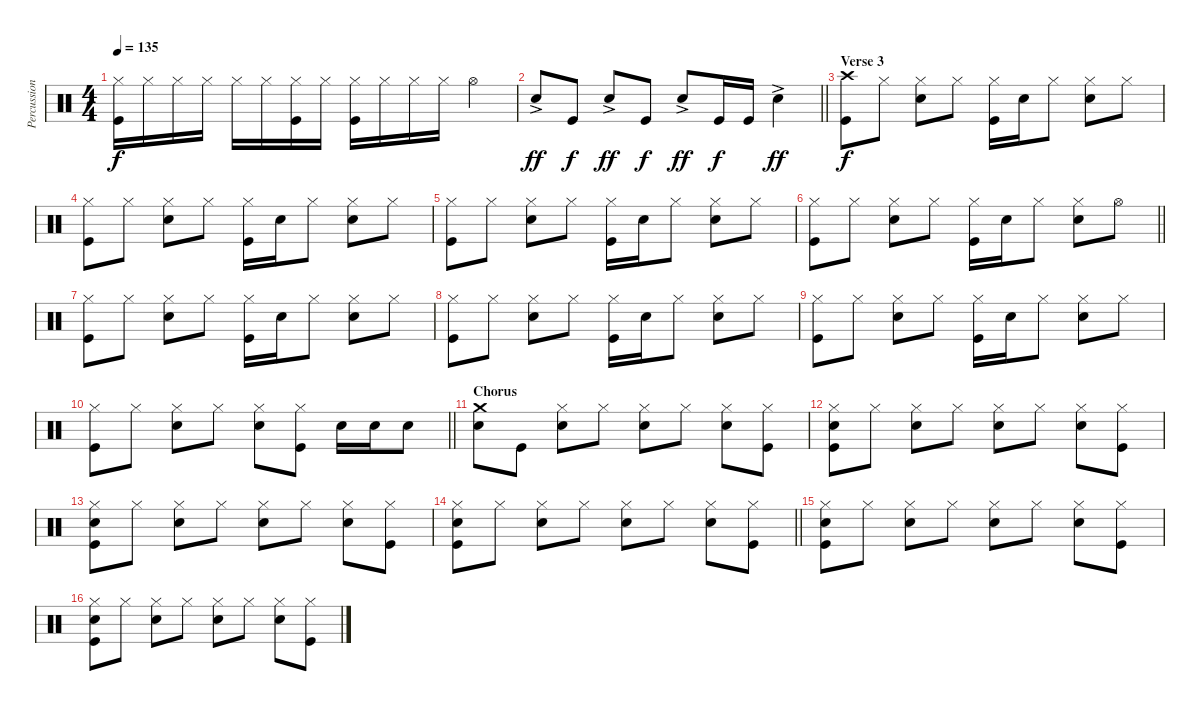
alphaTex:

\track ("Percussion" "Percussion") {instrument percussion}
\staff {score}
\articulation defaults
\ts (4 4)
\tempo 135
\clef neutral
\ks c
("Kick (hit)" "Hi-Hat (closed)").16{dy f} "Hi-Hat (closed)".16 "Hi-Hat (closed)".16 "Hi-Hat (closed)".16 "Hi-Hat (closed)".16 "Hi-Hat (closed)".16 ("Kick (hit)" "Hi-Hat (closed)").16 "Hi-Hat (closed)".16 ("Kick (hit)" "Hi-Hat (closed)").16 "Hi-Hat (closed)".16 "Hi-Hat (closed)".16 "Hi-Hat (closed)".16 "Hi-Hat (open)".4 |
\barLineRight lightlight "Snare (hit) 2"{ac}.8{dy ff} "Kick (hit)".8{dy f} "Snare (hit) 2"{ac}.8{dy ff} "Kick (hit)".8{dy f} "Snare (hit) 2"{ac}.8{dy ff} "Kick (hit)".16{dy f} "Kick (hit)".16 "Snare (hit) 2"{ac}.4{dy ff}
|
\section ("" "Verse 3")
("Kick (hit)" "Crash high (hit)").8{dy f} "Hi-Hat (closed)".8 ("Hi-Hat (closed)" "Snare (hit) 2").8 "Hi-Hat (closed)".8 ("Kick (hit)" "Hi-Hat (closed)").16 "Snare (hit) 2".16 "Hi-Hat (closed)".8 ("Hi-Hat (closed)" "Snare (hit) 2").8 "Hi-Hat (closed)".8 |
("Kick (hit)" "Hi-Hat (closed)").8 "Hi-Hat (closed)".8 ("Hi-Hat (closed)" "Snare (hit) 2").8 "Hi-Hat (closed)".8 ("Kick (hit)" "Hi-Hat (closed)").16 "Snare (hit) 2".16 "Hi-Hat (closed)".8 ("Hi-Hat (closed)" "Snare (hit) 2").8 "Hi-Hat (closed)".8 |
("Kick (hit)" "Hi-Hat (closed)").8 "Hi-Hat (closed)".8 ("Hi-Hat (closed)" "Snare (hit) 2").8 "Hi-Hat (closed)".8 ("Kick (hit)" "Hi-Hat (closed)").16 "Snare (hit) 2".16 "Hi-Hat (closed)".8 ("Hi-Hat (closed)" "Snare (hit) 2").8 "Hi-Hat (closed)".8 |
\barLineRight lightlight
("Kick (hit)" "Hi-Hat (closed)").8 "Hi-Hat (closed)".8 ("Hi-Hat (closed)" "Snare (hit) 2").8 "Hi-Hat (closed)".8 ("Kick (hit)" "Hi-Hat (closed)").16 "Snare (hit) 2".16 "Hi-Hat (closed)".8 ("Hi-Hat (closed)" "Snare (hit) 2").8 "Hi-Hat (open)".8 |
("Kick (hit)" "Hi-Hat (closed)").8 "Hi-Hat (closed)".8 ("Hi-Hat (closed)" "Snare (hit) 2").8 "Hi-Hat (closed)".8 ("Kick (hit)" "Hi-Hat (closed)").16 "Snare (hit) 2".16 "Hi-Hat (closed)".8 ("Hi-Hat (closed)" "Snare (hit) 2").8 "Hi-Hat (closed)".8 |
("Kick (hit)" "Hi-Hat (closed)").8 "Hi-Hat (closed)".8 ("Hi-Hat (closed)" "Snare (hit) 2").8 "Hi-Hat (closed)".8 ("Kick (hit)" "Hi-Hat (closed)").16 "Snare (hit) 2".16 "Hi-Hat (closed)".8 ("Hi-Hat (closed)" "Snare (hit) 2").8 "Hi-Hat (closed)".8 |
("Kick (hit)" "Hi-Hat (closed)").8 "Hi-Hat (closed)".8 ("Hi-Hat (closed)" "Snare (hit) 2").8 "Hi-Hat (closed)".8 ("Kick (hit)" "Hi-Hat (closed)").16 "Snare (hit) 2".16 "Hi-Hat (closed)".8 ("Hi-Hat (closed)" "Snare (hit) 2").8 "Hi-Hat (closed)".8 |
\barLineRight lightlight
("Kick (hit)" "Hi-Hat (closed)").8 "Hi-Hat (closed)".8 ("Hi-Hat (closed)" "Snare (hit) 2").8 "Hi-Hat (closed)".8 ("Hi-Hat (closed)" "Snare (hit) 2").8 ("Kick (hit)" "Hi-Hat (closed)").8 "Snare (hit) 2".16 "Snare (hit) 2".16 "Snare (hit) 2".8 |
\section ("" "Chorus")
("Crash medium (hit)" "Snare (hit) 2").8 "Kick (hit)".8 ("Hi-Hat (closed)" "Snare (hit) 2").8 "Hi-Hat (closed)".8 ("Hi-Hat (closed)" "Snare (hit) 2").8 "Hi-Hat (closed)".8 ("Hi-Hat (closed)" "Snare (hit) 2").8 ("Kick (hit)" "Hi-Hat (closed)").8 |
("Kick (hit)" "Hi-Hat (closed)" "Snare (hit) 2").8 "Hi-Hat (closed)".8 ("Hi-Hat (closed)" "Snare (hit) 2").8 "Hi-Hat (closed)".8 ("Hi-Hat (closed)" "Snare (hit) 2").8 "Hi-Hat (closed)".8 ("Hi-Hat (closed)" "Snare (hit) 2").8 ("Kick (hit)" "Hi-Hat (closed)").8 |
("Kick (hit)" "Hi-Hat (closed)" "Snare (hit) 2").8 "Hi-Hat (closed)".8 ("Hi-Hat (closed)" "Snare (hit) 2").8 "Hi-Hat (closed)".8 ("Hi-Hat (closed)" "Snare (hit) 2").8 "Hi-Hat (closed)".8 ("Hi-Hat (closed)" "Snare (hit) 2").8 ("Kick (hit)" "Hi-Hat (closed)").8 |
\barLineRight lightlight
("Kick (hit)" "Hi-Hat (closed)" "Snare (hit) 2").8 "Hi-Hat (closed)".8 ("Hi-Hat (closed)" "Snare (hit) 2").8 "Hi-Hat (closed)".8 ("Hi-Hat (closed)" "Snare (hit) 2").8 "Hi-Hat (closed)".8 ("Hi-Hat (closed)" "Snare (hit) 2").8 ("Kick (hit)" "Hi-Hat (closed)").8 |
("Kick (hit)" "Hi-Hat (closed)" "Snare (hit) 2").8 "Hi-Hat (closed)".8 ("Hi-Hat (closed)" "Snare (hit) 2").8 "Hi-Hat (closed)".8 ("Hi-Hat (closed)" "Snare (hit) 2").8 "Hi-Hat (closed)".8 ("Hi-Hat (closed)" "Snare (hit) 2").8 ("Kick (hit)" "Hi-Hat (closed)").8 |
("Kick (hit)" "Hi-Hat (closed)" "Snare (hit) 2").8 "Hi-Hat (closed)".8 ("Hi-Hat (closed)" "Snare (hit) 2").8 "Hi-Hat (closed)".8 ("Hi-Hat (closed)" "Snare (hit) 2").8 "Hi-Hat (closed)".8 ("Hi-Hat (closed)" "Snare (hit) 2").8 ("Kick (hit)" "Hi-Hat (closed)").8
